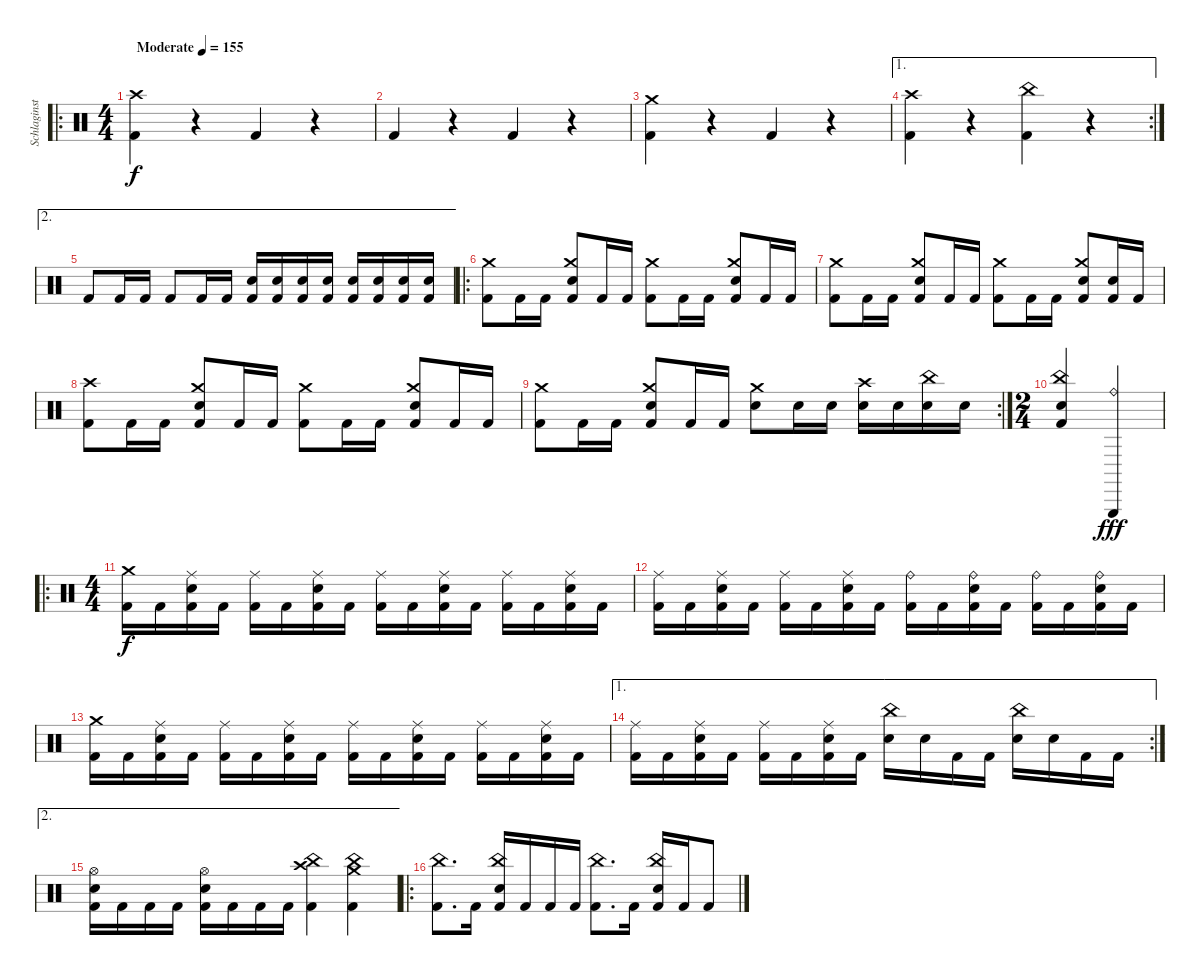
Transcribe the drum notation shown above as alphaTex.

\track ("Schlaginstrumente - Auswahl" "Schlaginst") {instrument percussion}
\staff {score}
\articulation defaults
\ro
\ts (4 4)
\tempo (155 "Moderate")
\clef neutral
\ks c
("Crash high (hit)" "Kick (hit) 2").4{dy f} r.4 "Kick (hit) 2".4 r.4 |
"Kick (hit) 2".4 r.4 "Kick (hit) 2".4 r.4 |
("Crash medium (hit)" "Kick (hit) 2").4 r.4 "Kick (hit) 2".4 r.4 |
\ae 1
\rc 2
("Crash high (hit)" "Kick (hit) 2").4 r.4 ("China (hit)" "Kick (hit) 2").4 r.4 |
\ae 2 "Kick (hit) 2".8 "Kick (hit) 2".16 "Kick (hit) 2".16 "Kick (hit) 2".8 "Kick (hit) 2".16 "Kick (hit) 2".16
("Electric Snare (hit)" "Kick (hit) 2").16 ("Electric Snare (hit)" "Kick (hit) 2").16 ("Electric Snare (hit)" "Kick (hit) 2").16 ("Electric Snare (hit)" "Kick (hit) 2").16 ("Electric Snare (hit)" "Kick (hit) 2").16 ("Electric Snare (hit)" "Kick (hit) 2").16 ("Electric Snare (hit)" "Kick (hit) 2").16 ("Electric Snare (hit)" "Kick (hit) 2").16 |
\ro
("Crash medium (hit)" "Kick (hit) 2").8 "Kick (hit) 2".16 "Kick (hit) 2".16 ("Crash medium (hit)" "Electric Snare (hit)" "Kick (hit) 2").8 "Kick (hit) 2".16 "Kick (hit) 2".16 ("Crash medium (hit)" "Kick (hit) 2").8 "Kick (hit) 2".16 "Kick (hit) 2".16 ("Crash medium (hit)" "Electric Snare (hit)" "Kick (hit) 2").8 "Kick (hit) 2".16 "Kick (hit) 2".16 |
("Crash medium (hit)" "Kick (hit) 2").8 "Kick (hit) 2".16 "Kick (hit) 2".16 ("Crash medium (hit)" "Electric Snare (hit)" "Kick (hit) 2").8 "Kick (hit) 2".16 "Kick (hit) 2".16 ("Crash medium (hit)" "Kick (hit) 2").8 "Kick (hit) 2".16 "Kick (hit) 2".16 ("Crash medium (hit)" "Electric Snare (hit)" "Kick (hit) 2").8 ("Electric Snare (hit)" "Kick (hit) 2").16 "Kick (hit) 2".16 |
("Crash high (hit)" "Kick (hit) 2").8 "Kick (hit) 2".16 "Kick (hit) 2".16 ("Crash medium (hit)" "Electric Snare (hit)" "Kick (hit) 2").8 "Kick (hit) 2".16 "Kick (hit) 2".16 ("Crash medium (hit)" "Kick (hit) 2").8 "Kick (hit) 2".16 "Kick (hit) 2".16 ("Crash medium (hit)" "Electric Snare (hit)" "Kick (hit) 2").8 "Kick (hit) 2".16 "Kick (hit) 2".16 |
\rc 2
("Crash medium (hit)" "Kick (hit) 2").8 "Kick (hit) 2".16 "Kick (hit) 2".16 ("Crash medium (hit)" "Electric Snare (hit)" "Kick (hit) 2").8 "Kick (hit) 2".16 "Kick (hit) 2".16 ("Crash medium (hit)" "Electric Snare (hit)").8 "Electric Snare (hit)".16 "Electric Snare (hit)".16 ("Crash high (hit)" "Electric Snare (hit)").16 "Electric Snare (hit)".16 ("China (hit)" "Electric Snare (hit)").16 "Electric Snare (hit)".16 |
\ts (2 4)
("China (hit)" "Electric Snare (hit)" "Kick (hit) 2").4 ("Ride (bell)" "Triangle (hit)").4{dy fff} |
\ro
\ts (4 4)
("Crash medium (hit)" "Kick (hit) 2").16{dy f} "Kick (hit) 2".16 ("Ride (middle)" "Electric Snare (hit)" "Kick (hit) 2").16 "Kick (hit) 2".16 ("Ride (middle)" "Kick (hit) 2").16 "Kick (hit) 2".16 ("Ride (middle)" "Electric Snare (hit)" "Kick (hit) 2").16 "Kick (hit) 2".16 ("Ride (middle)" "Kick (hit) 2").16 "Kick (hit) 2".16 ("Ride (middle)" "Electric Snare (hit)" "Kick (hit) 2").16 "Kick (hit) 2".16 ("Ride (middle)" "Kick (hit) 2").16 "Kick (hit) 2".16 ("Ride (middle)" "Electric Snare (hit)" "Kick (hit) 2").16 "Kick (hit) 2".16 |
("Ride (middle)" "Kick (hit) 2").16 "Kick (hit) 2".16 ("Ride (middle)" "Electric Snare (hit)" "Kick (hit) 2").16 "Kick (hit) 2".16 ("Ride (middle)" "Kick (hit) 2").16 "Kick (hit) 2".16 ("Ride (middle)" "Electric Snare (hit)" "Kick (hit) 2").16 "Kick (hit) 2".16 ("Ride (bell)" "Kick (hit) 2").16 "Kick (hit) 2".16 ("Ride (bell)" "Electric Snare (hit)" "Kick (hit) 2").16 "Kick (hit) 2".16 ("Ride (bell)" "Kick (hit) 2").16 "Kick (hit) 2".16 ("Ride (bell)" "Electric Snare (hit)" "Kick (hit) 2").16 "Kick (hit) 2".16 |
("Crash medium (hit)" "Kick (hit) 2").16 "Kick (hit) 2".16 ("Ride (middle)" "Electric Snare (hit)" "Kick (hit) 2").16 "Kick (hit) 2".16 ("Ride (middle)" "Kick (hit) 2").16 "Kick (hit) 2".16 ("Ride (middle)" "Electric Snare (hit)" "Kick (hit) 2").16 "Kick (hit) 2".16 ("Ride (middle)" "Kick (hit) 2").16 "Kick (hit) 2".16 ("Ride (middle)" "Electric Snare (hit)" "Kick (hit) 2").16 "Kick (hit) 2".16 ("Ride (middle)" "Kick (hit) 2").16 "Kick (hit) 2".16 ("Ride (middle)" "Electric Snare (hit)" "Kick (hit) 2").16 "Kick (hit) 2".16 |
\ae 1
\rc 2
("Ride (middle)" "Kick (hit) 2").16 "Kick (hit) 2".16 ("Ride (middle)" "Electric Snare (hit)" "Kick (hit) 2").16 "Kick (hit) 2".16 ("Ride (middle)" "Kick (hit) 2").16 "Kick (hit) 2".16 ("Ride (middle)" "Electric Snare (hit)" "Kick (hit) 2").16 "Kick (hit) 2".16 ("China (hit)" "Electric Snare (hit)").16 "Electric Snare (hit)".16 "Kick (hit) 2".16 "Kick (hit) 2".16 ("China (hit)" "Electric Snare (hit)").16 "Electric Snare (hit)".16 "Kick (hit) 2".16 "Kick (hit) 2".16 |
\ae 2
("Hi-Hat (open)" "Electric Snare (hit)" "Kick (hit) 2").16 "Kick (hit) 2".16 "Kick (hit) 2".16 "Kick (hit) 2".16 ("Hi-Hat (open)" "Electric Snare (hit)" "Kick (hit) 2").16 "Kick (hit) 2".16 "Kick (hit) 2".16 "Kick (hit) 2".16 ("Crash high (hit)" "China (hit)" "Kick (hit) 2").4 ("Crash medium (hit)" "China (hit)" "Kick (hit) 2").4 |
\ro
("China (hit)" "Kick (hit) 2").8{d} "Kick (hit) 2".16 ("China (hit)" "Electric Snare (hit)" "Kick (hit) 2").16 "Kick (hit) 2".16 "Kick (hit) 2".16 "Kick (hit) 2".16 ("China (hit)" "Kick (hit) 2").8{d} "Kick (hit) 2".16 ("China (hit)" "Electric Snare (hit)" "Kick (hit) 2").16 "Kick (hit) 2".16 "Kick (hit) 2".8
